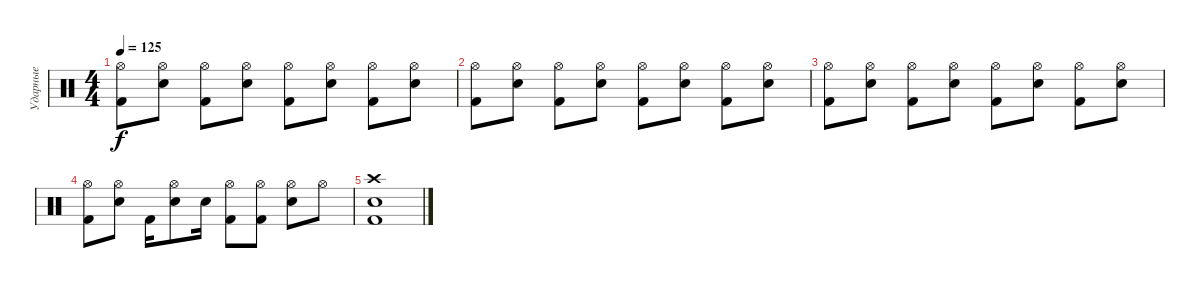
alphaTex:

\track ("Ударные" "Ударные") {instrument percussion}
\staff {score}
\articulation defaults
\ts (4 4)
\tempo 125
\clef neutral
\ks c
("Hi-Hat (open)" "Kick (hit) 2").8{dy f} ("Hi-Hat (open)" "Snare (hit) 2").8 ("Hi-Hat (open)" "Kick (hit) 2").8 ("Hi-Hat (open)" "Snare (hit) 2").8 ("Hi-Hat (open)" "Kick (hit) 2").8 ("Hi-Hat (open)" "Snare (hit) 2").8 ("Hi-Hat (open)" "Kick (hit) 2").8 ("Hi-Hat (open)" "Snare (hit) 2").8 |
("Hi-Hat (open)" "Kick (hit) 2").8 ("Hi-Hat (open)" "Snare (hit) 2").8 ("Hi-Hat (open)" "Kick (hit) 2").8 ("Hi-Hat (open)" "Snare (hit) 2").8 ("Hi-Hat (open)" "Kick (hit) 2").8 ("Hi-Hat (open)" "Snare (hit) 2").8 ("Hi-Hat (open)" "Kick (hit) 2").8 ("Hi-Hat (open)" "Snare (hit) 2").8 |
("Hi-Hat (open)" "Kick (hit) 2").8 ("Hi-Hat (open)" "Snare (hit) 2").8 ("Hi-Hat (open)" "Kick (hit) 2").8 ("Hi-Hat (open)" "Snare (hit) 2").8 ("Hi-Hat (open)" "Kick (hit) 2").8 ("Hi-Hat (open)" "Snare (hit) 2").8 ("Hi-Hat (open)" "Kick (hit) 2").8 ("Hi-Hat (open)" "Snare (hit) 2").8 |
("Hi-Hat (open)" "Kick (hit) 2").8 ("Hi-Hat (open)" "Snare (hit) 2").8 "Kick (hit) 2".16 ("Hi-Hat (open)" "Snare (hit) 2").8 "Snare (hit) 2".16 ("Hi-Hat (open)" "Kick (hit) 2").8 ("Hi-Hat (open)" "Kick (hit) 2").8 ("Hi-Hat (open)" "Snare (hit) 2").8 "Hi-Hat (open)".8 |
("Crash high (hit)" "Snare (hit) 2" "Kick (hit) 2").1
